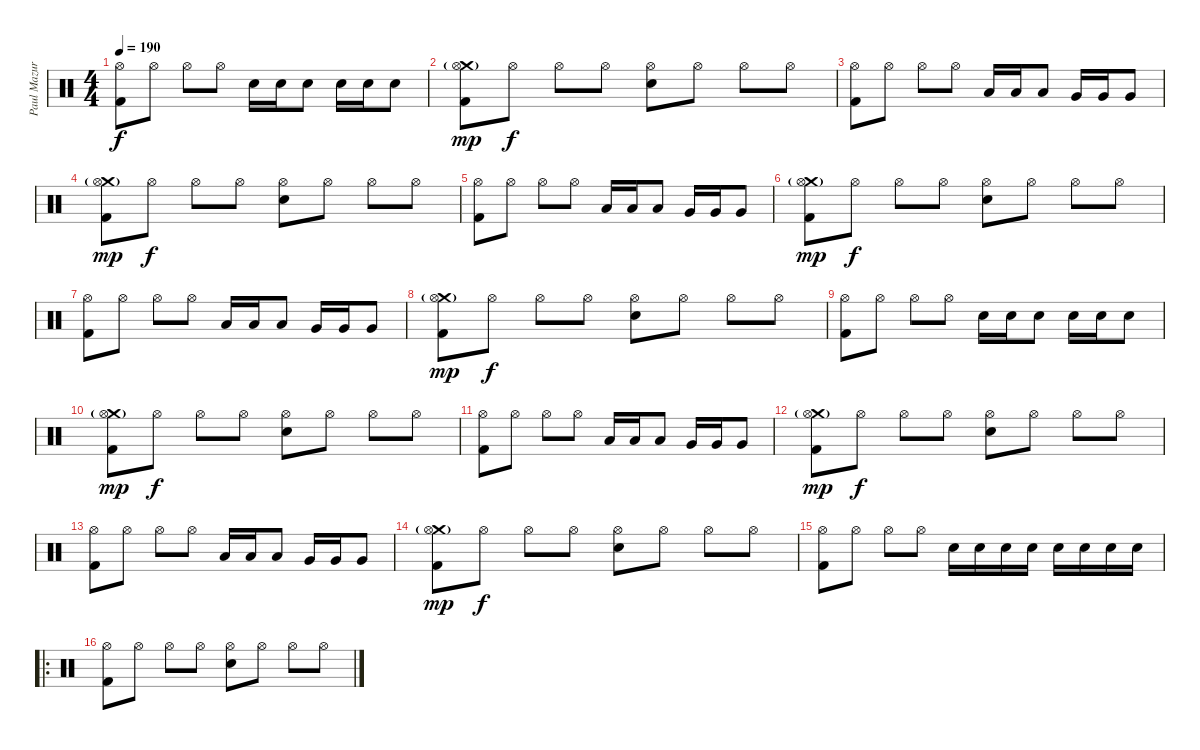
\track ("Paul Mazurkiewicz" "Paul Mazur") {instrument percussion}
\staff {score}
\articulation defaults
\ts (4 4)
\tempo 190
\clef neutral
\ks c
("Hi-Hat (open)" "Kick (hit) 2").8{dy f} "Hi-Hat (open)".8 "Hi-Hat (open)".8 "Hi-Hat (open)".8 "Electric Snare (hit)".16 "Electric Snare (hit)".16 "Electric Snare (hit)".8 "Electric Snare (hit)".16 "Electric Snare (hit)".16 "Electric Snare (hit)".8 |
("Crash medium (hit)"{g} "Hi-Hat (open)" "Kick (hit) 2").8{dy mp} "Hi-Hat (open)".8{dy f} "Hi-Hat (open)".8 "Hi-Hat (open)".8 ("Hi-Hat (open)" "Electric Snare (hit)").8 "Hi-Hat (open)".8 "Hi-Hat (open)".8 "Hi-Hat (open)".8 |
("Hi-Hat (open)" "Kick (hit) 2").8 "Hi-Hat (open)".8 "Hi-Hat (open)".8 "Hi-Hat (open)".8 "Low Tom (hit)".16 "Low Tom (hit)".16 "Low Tom (hit)".8 "Very Low Tom (hit)".16 "Very Low Tom (hit)".16 "Very Low Tom (hit)".8 |
("Crash medium (hit)"{g} "Hi-Hat (open)" "Kick (hit) 2").8{dy mp} "Hi-Hat (open)".8{dy f} "Hi-Hat (open)".8 "Hi-Hat (open)".8 ("Hi-Hat (open)" "Electric Snare (hit)").8 "Hi-Hat (open)".8 "Hi-Hat (open)".8 "Hi-Hat (open)".8 |
("Hi-Hat (open)" "Kick (hit) 2").8 "Hi-Hat (open)".8 "Hi-Hat (open)".8 "Hi-Hat (open)".8 "Low Tom (hit)".16 "Low Tom (hit)".16 "Low Tom (hit)".8 "Very Low Tom (hit)".16 "Very Low Tom (hit)".16 "Very Low Tom (hit)".8 |
("Crash medium (hit)"{g} "Hi-Hat (open)" "Kick (hit) 2").8{dy mp} "Hi-Hat (open)".8{dy f} "Hi-Hat (open)".8 "Hi-Hat (open)".8 ("Hi-Hat (open)" "Electric Snare (hit)").8 "Hi-Hat (open)".8 "Hi-Hat (open)".8 "Hi-Hat (open)".8 |
("Hi-Hat (open)" "Kick (hit) 2").8 "Hi-Hat (open)".8 "Hi-Hat (open)".8 "Hi-Hat (open)".8 "Low Tom (hit)".16 "Low Tom (hit)".16 "Low Tom (hit)".8 "Very Low Tom (hit)".16 "Very Low Tom (hit)".16 "Very Low Tom (hit)".8 |
("Crash medium (hit)"{g} "Hi-Hat (open)" "Kick (hit) 2").8{dy mp} "Hi-Hat (open)".8{dy f} "Hi-Hat (open)".8 "Hi-Hat (open)".8 ("Hi-Hat (open)" "Electric Snare (hit)").8 "Hi-Hat (open)".8 "Hi-Hat (open)".8 "Hi-Hat (open)".8 |
("Hi-Hat (open)" "Kick (hit) 2").8 "Hi-Hat (open)".8 "Hi-Hat (open)".8 "Hi-Hat (open)".8 "Electric Snare (hit)".16 "Electric Snare (hit)".16 "Electric Snare (hit)".8 "Electric Snare (hit)".16 "Electric Snare (hit)".16 "Electric Snare (hit)".8 |
("Crash medium (hit)"{g} "Hi-Hat (open)" "Kick (hit) 2").8{dy mp} "Hi-Hat (open)".8{dy f} "Hi-Hat (open)".8 "Hi-Hat (open)".8 ("Hi-Hat (open)" "Electric Snare (hit)").8 "Hi-Hat (open)".8 "Hi-Hat (open)".8 "Hi-Hat (open)".8 |
("Hi-Hat (open)" "Kick (hit) 2").8 "Hi-Hat (open)".8 "Hi-Hat (open)".8 "Hi-Hat (open)".8 "Low Tom (hit)".16 "Low Tom (hit)".16 "Low Tom (hit)".8 "Very Low Tom (hit)".16 "Very Low Tom (hit)".16 "Very Low Tom (hit)".8 |
("Crash medium (hit)"{g} "Hi-Hat (open)" "Kick (hit) 2").8{dy mp} "Hi-Hat (open)".8{dy f} "Hi-Hat (open)".8 "Hi-Hat (open)".8 ("Hi-Hat (open)" "Electric Snare (hit)").8 "Hi-Hat (open)".8 "Hi-Hat (open)".8 "Hi-Hat (open)".8 |
("Hi-Hat (open)" "Kick (hit) 2").8 "Hi-Hat (open)".8 "Hi-Hat (open)".8 "Hi-Hat (open)".8 "Low Tom (hit)".16 "Low Tom (hit)".16 "Low Tom (hit)".8 "Very Low Tom (hit)".16 "Very Low Tom (hit)".16 "Very Low Tom (hit)".8 |
("Crash medium (hit)"{g} "Hi-Hat (open)" "Kick (hit) 2").8{dy mp} "Hi-Hat (open)".8{dy f} "Hi-Hat (open)".8 "Hi-Hat (open)".8 ("Hi-Hat (open)" "Electric Snare (hit)").8 "Hi-Hat (open)".8 "Hi-Hat (open)".8 "Hi-Hat (open)".8 |
("Hi-Hat (open)" "Kick (hit) 2").8 "Hi-Hat (open)".8 "Hi-Hat (open)".8 "Hi-Hat (open)".8 "Electric Snare (hit)".16 "Electric Snare (hit)".16 "Electric Snare (hit)".16 "Electric Snare (hit)".16 "Electric Snare (hit)".16 "Electric Snare (hit)".16 "Electric Snare (hit)".16 "Electric Snare (hit)".16 |
\ro
("Hi-Hat (open)" "Kick (hit) 2").8 "Hi-Hat (open)".8 "Hi-Hat (open)".8 "Hi-Hat (open)".8 ("Hi-Hat (open)" "Electric Snare (hit)").8 "Hi-Hat (open)".8 "Hi-Hat (open)".8 "Hi-Hat (open)".8
